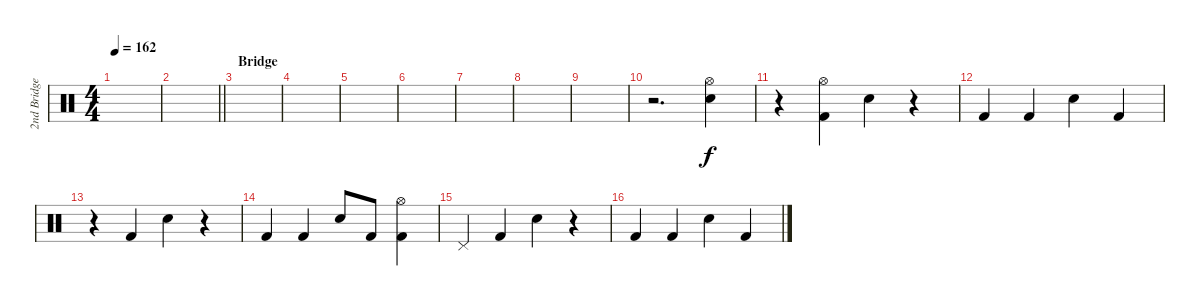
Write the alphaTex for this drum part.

\track ("2nd Bridge Drums" "2nd Bridge") {instrument percussion}
\staff {score}
\articulation defaults
\ts (4 4)
\tempo 162
\clef neutral
\ks c
|
\barLineRight lightlight
|
\section ("" "Bridge")
|
|
|
|
|
|
|
r.2{d} ("Hi-Hat (open)" "Snare (hit) 2").4 |
r.4 ("Hi-Hat (open)" "Kick (hit) 2").4 "Snare (hit) 2".4 r.4 |
"Kick (hit) 2".4 "Kick (hit) 2".4 "Snare (hit) 2".4 "Kick (hit) 2".4 |
r.4 "Kick (hit) 2".4 "Snare (hit) 2".4 r.4 |
"Kick (hit) 2".4 "Kick (hit) 2".4 "Snare (hit) 2".8 "Kick (hit) 2".8 ("Hi-Hat (open)" "Kick (hit) 2").4 |
"Pedal Hi-Hat (hit)".4 "Kick (hit) 2".4 "Snare (hit) 2".4 r.4 |
"Kick (hit) 2".4 "Kick (hit) 2".4 "Snare (hit) 2".4 "Kick (hit) 2".4
